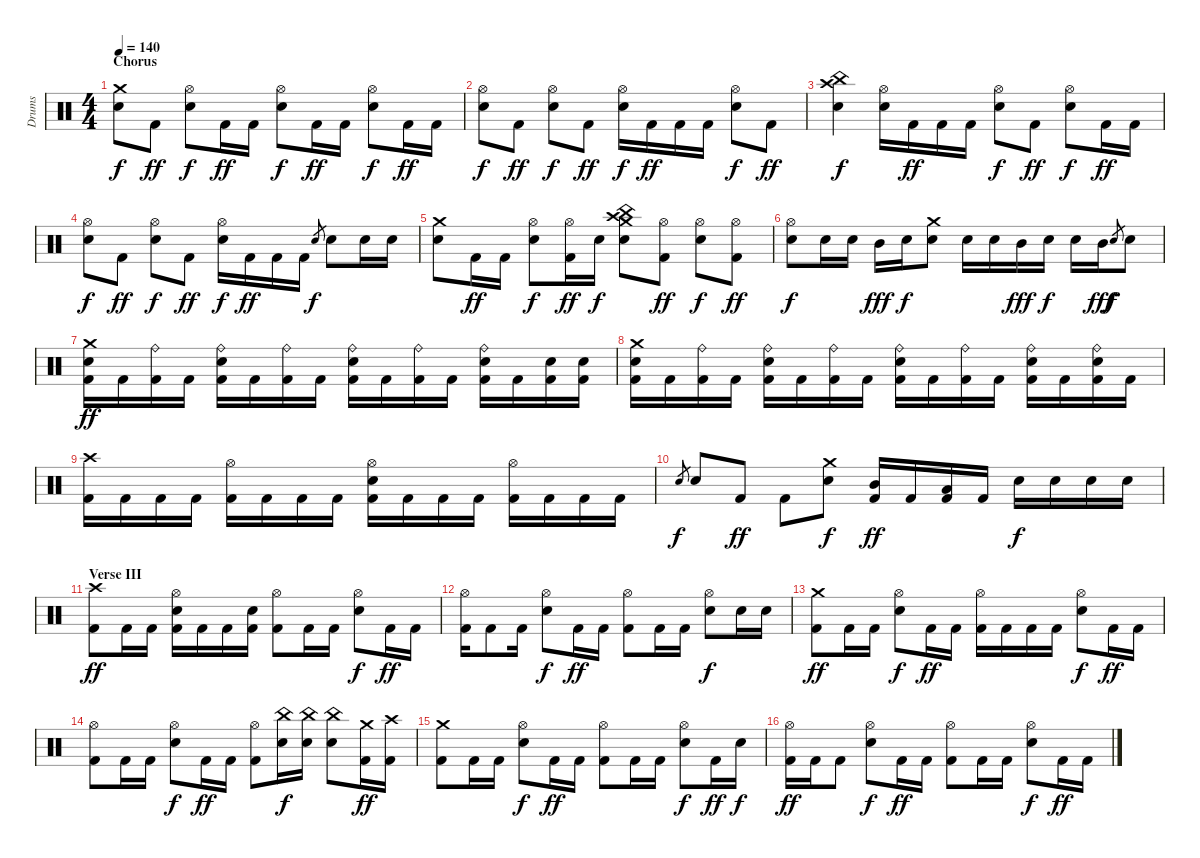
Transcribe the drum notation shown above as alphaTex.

\track ("Drums" "Drums") {instrument percussion}
\staff {score}
\articulation defaults
\ts (4 4)
\section ("" "Chorus")
\tempo 140
\clef neutral
\ks c
("Crash medium (hit)" "Snare (hit) 2").8{dy f} "Kick (hit) 2".8{dy ff} ("Hi-Hat (open)" "Snare (hit) 2").8{dy f} "Kick (hit) 2".16{dy ff} "Kick (hit) 2".16 ("Hi-Hat (open)" "Snare (hit) 2").8{dy f} "Kick (hit) 2".16{dy ff} "Kick (hit) 2".16 ("Hi-Hat (open)" "Snare (hit) 2").8{dy f} "Kick (hit) 2".16{dy ff} "Kick (hit) 2".16 |
("Hi-Hat (open)" "Snare (hit) 2").8{dy f} "Kick (hit) 2".8{dy ff} ("Hi-Hat (open)" "Snare (hit) 2").8{dy f} "Kick (hit) 2".8{dy ff} ("Hi-Hat (open)" "Snare (hit) 2").16{dy f} "Kick (hit) 2".16{dy ff} "Kick (hit) 2".16 "Kick (hit) 2".16 ("Hi-Hat (open)" "Snare (hit) 2").8{dy f} "Kick (hit) 2".8{dy ff} |
("Crash high (hit)" "China (hit)" "Snare (hit) 2").4{dy f} ("Hi-Hat (open)" "Snare (hit) 2").16 "Kick (hit) 2".16{dy ff} "Kick (hit) 2".16 "Kick (hit) 2".16 ("Hi-Hat (open)" "Snare (hit) 2").8{dy f} "Kick (hit) 2".8{dy ff} ("Hi-Hat (open)" "Snare (hit) 2").8{dy f} "Kick (hit) 2".16{dy ff} "Kick (hit) 2".16 |
("Hi-Hat (open)" "Snare (hit) 2").8{dy f} "Kick (hit) 2".8{dy ff} ("Hi-Hat (open)" "Snare (hit) 2").8{dy f} "Kick (hit) 2".8{dy ff} ("Hi-Hat (open)" "Snare (hit) 2").16{dy f} "Kick (hit) 2".16{dy ff} "Kick (hit) 2".16 "Kick (hit) 2".16 "Snare (hit) 2".8{gr dy f} "Snare (hit) 2".8 "Snare (hit) 2".16 "Snare (hit) 2".16 |
("Crash medium (hit)" "Snare (hit) 2").8 "Kick (hit) 2".16{dy ff} "Kick (hit) 2".16 ("Hi-Hat (open)" "Snare (hit) 2").8{dy f} ("Hi-Hat (open)" "Kick (hit) 2").16{dy ff} "Snare (hit) 2".16{dy f} ("Crash medium (hit)" "China (hit)" "Crash high (hit)" "Snare (hit) 2").8 ("Hi-Hat (open)" "Kick (hit) 2").8{dy ff} ("Hi-Hat (open)" "Snare (hit) 2").8{dy f} ("Hi-Hat (open)" "Kick (hit) 2").8{dy ff} |
("Hi-Hat (open)" "Snare (hit) 2").8{dy f} "Snare (hit) 2".16 "Snare (hit) 2".16 "Mid Tom (hit)".16{dy fff} "Snare (hit) 2".16{dy f} ("Crash medium (hit)" "Snare (hit) 2").8 "Snare (hit) 2".16 "Snare (hit) 2".16 "Mid Tom (hit)".16{dy fff} "Snare (hit) 2".16{dy f} "Snare (hit) 2".16 "Mid Tom (hit)".16{dy fff} "Snare (hit) 2".8{gr dy f} "Snare (hit) 2".8 |
("Crash medium (hit)" "Snare (hit) 2" "Kick (hit) 2").16{dy ff} "Kick (hit) 2".16 ("Ride (bell)" "Kick (hit) 2").16 "Kick (hit) 2".16 ("Ride (bell)" "Snare (hit) 2" "Kick (hit) 2").16 "Kick (hit) 2".16 ("Ride (bell)" "Kick (hit) 2").16 "Kick (hit) 2".16 ("Ride (bell)" "Snare (hit) 2" "Kick (hit) 2").16 "Kick (hit) 2".16 ("Ride (bell)" "Kick (hit) 2").16 "Kick (hit) 2".16 ("Ride (bell)" "Snare (hit) 2" "Kick (hit) 2").16 "Kick (hit) 2".16 ("Snare (hit) 2" "Kick (hit) 2").16 ("Snare (hit) 2" "Kick (hit) 2").16 |
("Crash medium (hit)" "Snare (hit) 2" "Kick (hit) 2").16 "Kick (hit) 2".16 ("Ride (bell)" "Kick (hit) 2").16 "Kick (hit) 2".16 ("Ride (bell)" "Snare (hit) 2" "Kick (hit) 2").16 "Kick (hit) 2".16 ("Ride (bell)" "Kick (hit) 2").16 "Kick (hit) 2".16 ("Ride (bell)" "Snare (hit) 2" "Kick (hit) 2").16 "Kick (hit) 2".16 ("Ride (bell)" "Kick (hit) 2").16 "Kick (hit) 2".16 ("Ride (bell)" "Snare (hit) 2" "Kick (hit) 2").16 "Kick (hit) 2".16 ("Ride (bell)" "Snare (hit) 2" "Kick (hit) 2").16 "Kick (hit) 2".16 |
("Crash high (hit)" "Kick (hit) 2").16 "Kick (hit) 2".16 "Kick (hit) 2".16 "Kick (hit) 2".16 ("Hi-Hat (open)" "Kick (hit) 2").16 "Kick (hit) 2".16 "Kick (hit) 2".16 "Kick (hit) 2".16 ("Hi-Hat (open)" "Snare (hit) 2" "Kick (hit) 2").16 "Kick (hit) 2".16 "Kick (hit) 2".16 "Kick (hit) 2".16 ("Hi-Hat (open)" "Kick (hit) 2").16 "Kick (hit) 2".16 "Kick (hit) 2".16 "Kick (hit) 2".16 |
"Snare (hit) 2".8{gr dy f} "Snare (hit) 2".8 "Kick (hit) 2".8{dy ff} "Kick (hit) 2".8 ("Crash medium (hit)" "Snare (hit) 2").8{dy f} ("Mid Tom (hit)" "Kick (hit) 2").16{dy ff} "Kick (hit) 2".16 ("Low Tom (hit)" "Kick (hit) 2").16 "Kick (hit) 2".16 "Snare (hit) 2".16{dy f} "Snare (hit) 2".16 "Snare (hit) 2".16 "Snare (hit) 2".16 |
\section ("" "Verse III")
("Crash high (hit)" "Kick (hit) 2").8{dy ff} "Kick (hit) 2".16 "Kick (hit) 2".16 ("Hi-Hat (open)" "Snare (hit) 2" "Kick (hit) 2").16 "Kick (hit) 2".16 "Kick (hit) 2".16 ("Snare (hit) 2" "Kick (hit) 2").16 ("Hi-Hat (open)" "Kick (hit) 2").8 "Kick (hit) 2".16 "Kick (hit) 2".16 ("Hi-Hat (open)" "Snare (hit) 2").8{dy f} "Kick (hit) 2".16{dy ff} "Kick (hit) 2".16 |
("Hi-Hat (open)" "Kick (hit) 2").16 "Kick (hit) 2".8 "Kick (hit) 2".16 ("Hi-Hat (open)" "Snare (hit) 2").8{dy f} "Kick (hit) 2".16{dy ff} "Kick (hit) 2".16 ("Hi-Hat (open)" "Kick (hit) 2").8 "Kick (hit) 2".16 "Kick (hit) 2".16 ("Hi-Hat (open)" "Snare (hit) 2").8{dy f} "Snare (hit) 2".16 "Snare (hit) 2".16 |
("Crash medium (hit)" "Kick (hit) 2").8{dy ff} "Kick (hit) 2".16 "Kick (hit) 2".16 ("Hi-Hat (open)" "Snare (hit) 2").8{dy f} "Kick (hit) 2".16{dy ff} "Kick (hit) 2".16 ("Hi-Hat (open)" "Kick (hit) 2").16 "Kick (hit) 2".16 "Kick (hit) 2".16 "Kick (hit) 2".16 ("Hi-Hat (open)" "Snare (hit) 2").8{dy f} "Kick (hit) 2".16{dy ff} "Kick (hit) 2".16 |
("Hi-Hat (open)" "Kick (hit) 2").8 "Kick (hit) 2".16 "Kick (hit) 2".16 ("Hi-Hat (open)" "Snare (hit) 2").8{dy f} "Kick (hit) 2".16{dy ff} "Kick (hit) 2".16 ("Hi-Hat (open)" "Kick (hit) 2").8 ("China (hit)" "Snare (hit) 2").16{dy f} ("China (hit)" "Snare (hit) 2").16 ("China (hit)" "Snare (hit) 2").8 ("Crash medium (hit)" "Kick (hit) 2").16{dy ff} ("Crash high (hit)" "Kick (hit) 2").16 |
("Crash medium (hit)" "Kick (hit) 2").8 "Kick (hit) 2".16 "Kick (hit) 2".16 ("Hi-Hat (open)" "Snare (hit) 2").8{dy f} "Kick (hit) 2".16{dy ff} "Kick (hit) 2".16 ("Hi-Hat (open)" "Kick (hit) 2").8 "Kick (hit) 2".16 "Kick (hit) 2".16 ("Hi-Hat (open)" "Snare (hit) 2").8{dy f} "Kick (hit) 2".16{dy ff} "Snare (hit) 2".16{dy f} |
("Hi-Hat (open)" "Kick (hit) 2").16{dy ff} "Kick (hit) 2".16 "Kick (hit) 2".8 ("Hi-Hat (open)" "Snare (hit) 2").8{dy f} "Kick (hit) 2".16{dy ff} "Kick (hit) 2".16 ("Hi-Hat (open)" "Kick (hit) 2").8 "Kick (hit) 2".16 "Kick (hit) 2".16 ("Hi-Hat (open)" "Snare (hit) 2").8{dy f} "Kick (hit) 2".16{dy ff} "Kick (hit) 2".16
